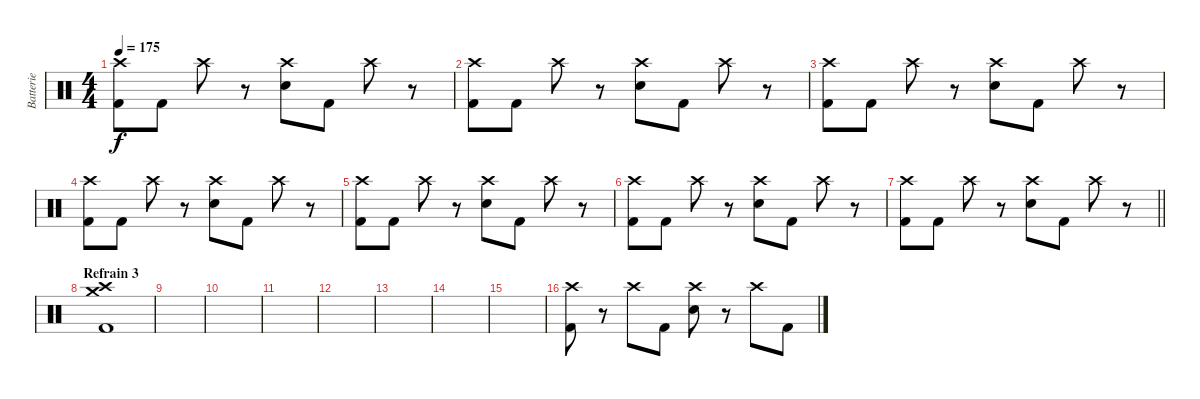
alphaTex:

\track ("Batterie" "Batterie") {instrument percussion}
\staff {score}
\articulation defaults
\ts (4 4)
\tempo 175
\clef neutral
\ks c
("Kick (hit) 2" "Crash high (hit)").8{dy f} "Kick (hit) 2".8 "Crash high (hit)".8 r.8 ("Electric Snare (hit)" "Crash high (hit)").8 "Kick (hit) 2".8 "Crash high (hit)".8 r.8 |
("Kick (hit) 2" "Crash high (hit)").8 "Kick (hit) 2".8 "Crash high (hit)".8 r.8 ("Electric Snare (hit)" "Crash high (hit)").8 "Kick (hit) 2".8 "Crash high (hit)".8 r.8 |
("Kick (hit) 2" "Crash high (hit)").8 "Kick (hit) 2".8 "Crash high (hit)".8 r.8 ("Electric Snare (hit)" "Crash high (hit)").8 "Kick (hit) 2".8 "Crash high (hit)".8 r.8 |
("Kick (hit) 2" "Crash high (hit)").8 "Kick (hit) 2".8 "Crash high (hit)".8 r.8 ("Electric Snare (hit)" "Crash high (hit)").8 "Kick (hit) 2".8 "Crash high (hit)".8 r.8 |
("Kick (hit) 2" "Crash high (hit)").8 "Kick (hit) 2".8 "Crash high (hit)".8 r.8 ("Electric Snare (hit)" "Crash high (hit)").8 "Kick (hit) 2".8 "Crash high (hit)".8 r.8 |
("Kick (hit) 2" "Crash high (hit)").8 "Kick (hit) 2".8 "Crash high (hit)".8 r.8 ("Electric Snare (hit)" "Crash high (hit)").8 "Kick (hit) 2".8 "Crash high (hit)".8 r.8 |
\barLineRight lightlight
("Kick (hit) 2" "Crash high (hit)").8 "Kick (hit) 2".8 "Crash high (hit)".8 r.8 ("Electric Snare (hit)" "Crash high (hit)").8 "Kick (hit) 2".8 "Crash high (hit)".8 r.8 |
\section ("" "Refrain 3")
("Kick (hit) 2" "Crash medium (hit)" "Crash high (hit)").1 |
|
|
|
|
|
|
|
("Kick (hit) 2" "Crash high (hit)").8 r.8 "Crash high (hit)".8 "Kick (hit) 2".8 ("Electric Snare (hit)" "Crash high (hit)").8 r.8 "Crash high (hit)".8 "Kick (hit) 2".8
